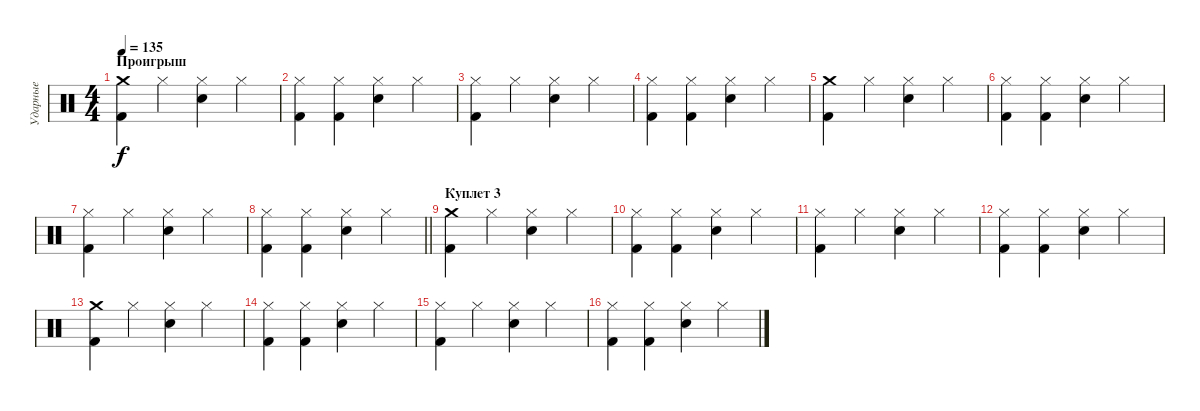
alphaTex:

\track ("Ударные" "Ударные") {instrument percussion}
\staff {score}
\articulation defaults
\ts (4 4)
\section ("" "Проигрыш")
\tempo 135
\clef neutral
\ks c
("Crash medium (hit)" "Kick (hit) 2").4{dy f} "Hi-Hat (closed)".4 ("Hi-Hat (closed)" "Electric Snare (hit)").4 "Hi-Hat (closed)".4 |
("Hi-Hat (closed)" "Kick (hit) 2").4 ("Hi-Hat (closed)" "Kick (hit) 2").4 ("Hi-Hat (closed)" "Electric Snare (hit)").4 "Hi-Hat (closed)".4 |
("Hi-Hat (closed)" "Kick (hit) 2").4 "Hi-Hat (closed)".4 ("Hi-Hat (closed)" "Electric Snare (hit)").4 "Hi-Hat (closed)".4 |
("Hi-Hat (closed)" "Kick (hit) 2").4 ("Hi-Hat (closed)" "Kick (hit) 2").4 ("Hi-Hat (closed)" "Electric Snare (hit)").4 "Hi-Hat (closed)".4 |
("Crash medium (hit)" "Kick (hit) 2").4 "Hi-Hat (closed)".4 ("Hi-Hat (closed)" "Electric Snare (hit)").4 "Hi-Hat (closed)".4 |
("Hi-Hat (closed)" "Kick (hit) 2").4 ("Hi-Hat (closed)" "Kick (hit) 2").4 ("Hi-Hat (closed)" "Electric Snare (hit)").4 "Hi-Hat (closed)".4 |
("Hi-Hat (closed)" "Kick (hit) 2").4 "Hi-Hat (closed)".4 ("Hi-Hat (closed)" "Electric Snare (hit)").4 "Hi-Hat (closed)".4 |
\barLineRight lightlight
("Hi-Hat (closed)" "Kick (hit) 2").4 ("Hi-Hat (closed)" "Kick (hit) 2").4 ("Hi-Hat (closed)" "Electric Snare (hit)").4 "Hi-Hat (closed)".4 |
\section ("" "Куплет 3")
("Crash medium (hit)" "Kick (hit) 2").4 "Hi-Hat (closed)".4 ("Hi-Hat (closed)" "Electric Snare (hit)").4 "Hi-Hat (closed)".4 |
("Hi-Hat (closed)" "Kick (hit) 2").4 ("Hi-Hat (closed)" "Kick (hit) 2").4 ("Hi-Hat (closed)" "Electric Snare (hit)").4 "Hi-Hat (closed)".4 |
("Hi-Hat (closed)" "Kick (hit) 2").4 "Hi-Hat (closed)".4 ("Hi-Hat (closed)" "Electric Snare (hit)").4 "Hi-Hat (closed)".4 |
("Hi-Hat (closed)" "Kick (hit) 2").4 ("Hi-Hat (closed)" "Kick (hit) 2").4 ("Hi-Hat (closed)" "Electric Snare (hit)").4 "Hi-Hat (closed)".4 |
("Crash medium (hit)" "Kick (hit) 2").4 "Hi-Hat (closed)".4 ("Hi-Hat (closed)" "Electric Snare (hit)").4 "Hi-Hat (closed)".4 |
("Hi-Hat (closed)" "Kick (hit) 2").4 ("Hi-Hat (closed)" "Kick (hit) 2").4 ("Hi-Hat (closed)" "Electric Snare (hit)").4 "Hi-Hat (closed)".4 |
("Hi-Hat (closed)" "Kick (hit) 2").4 "Hi-Hat (closed)".4 ("Hi-Hat (closed)" "Electric Snare (hit)").4 "Hi-Hat (closed)".4 |
("Hi-Hat (closed)" "Kick (hit) 2").4 ("Hi-Hat (closed)" "Kick (hit) 2").4 ("Hi-Hat (closed)" "Electric Snare (hit)").4 "Hi-Hat (closed)".4
